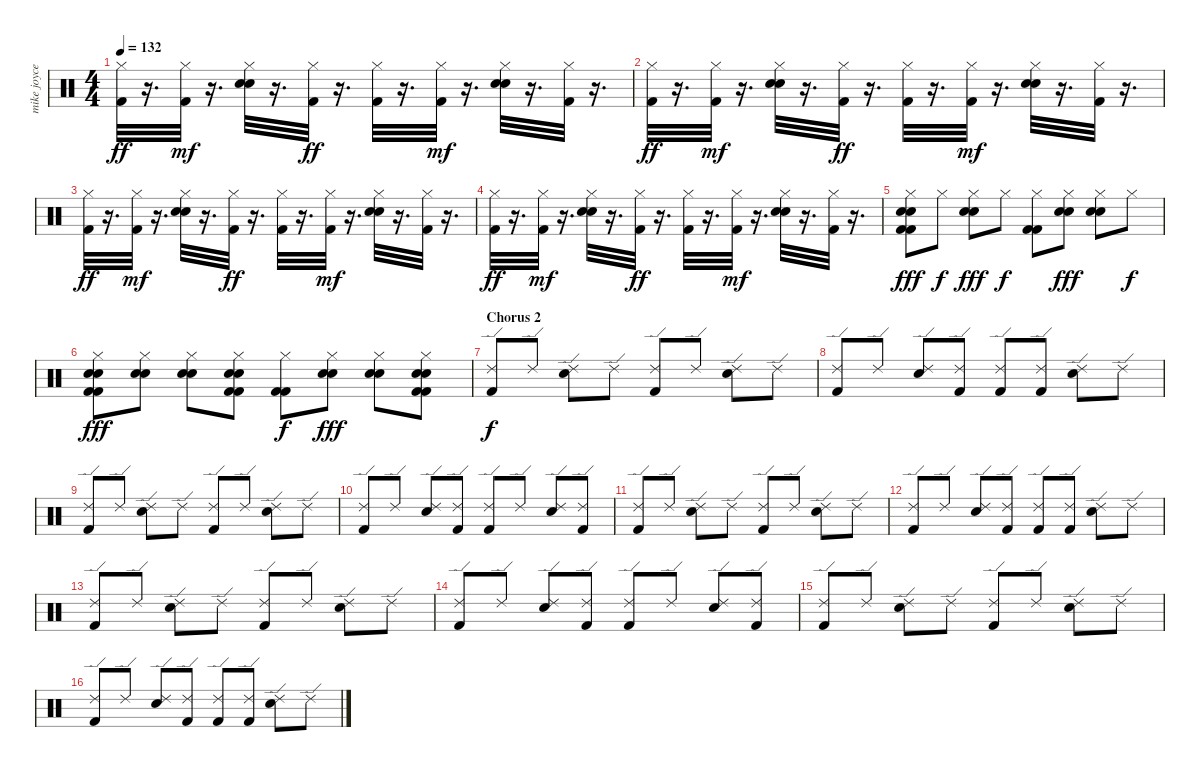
\track ("mike joyce" "mike joyce") {instrument percussion}
\staff {score}
\articulation defaults
\ts (4 4)
\tempo 132
\clef neutral
\ks c
("Hi-Hat (closed)" "Kick (hit) 2").32{dy ff} r.16{d} ("Kick (hit) 2" "Hi-Hat (closed)").32{dy mf} r.16{d} ("Snare (hit) 2" "Electric Snare (hit)" "Hi-Hat (closed)").32 r.16{d} ("Hi-Hat (closed)" "Kick (hit) 2").32{dy ff} r.16{d} ("Hi-Hat (closed)" "Kick (hit) 2").32 r.16{d} ("Kick (hit) 2" "Hi-Hat (closed)").32{dy mf} r.16{d} ("Snare (hit) 2" "Electric Snare (hit)" "Hi-Hat (closed)").32 r.16{d} ("Kick (hit) 2" "Hi-Hat (closed)").32 r.16{d} |
("Hi-Hat (closed)" "Kick (hit) 2").32{dy ff} r.16{d} ("Kick (hit) 2" "Hi-Hat (closed)").32{dy mf} r.16{d} ("Snare (hit) 2" "Electric Snare (hit)" "Hi-Hat (closed)").32 r.16{d} ("Hi-Hat (closed)" "Kick (hit) 2").32{dy ff} r.16{d} ("Hi-Hat (closed)" "Kick (hit) 2").32 r.16{d} ("Kick (hit) 2" "Hi-Hat (closed)").32{dy mf} r.16{d} ("Snare (hit) 2" "Electric Snare (hit)" "Hi-Hat (closed)").32 r.16{d} ("Kick (hit) 2" "Hi-Hat (closed)").32 r.16{d} |
("Hi-Hat (closed)" "Kick (hit) 2").32{dy ff} r.16{d} ("Kick (hit) 2" "Hi-Hat (closed)").32{dy mf} r.16{d} ("Snare (hit) 2" "Electric Snare (hit)" "Hi-Hat (closed)").32 r.16{d} ("Hi-Hat (closed)" "Kick (hit) 2").32{dy ff} r.16{d} ("Hi-Hat (closed)" "Kick (hit) 2").32 r.16{d} ("Kick (hit) 2" "Hi-Hat (closed)").32{dy mf} r.16{d} ("Snare (hit) 2" "Electric Snare (hit)" "Hi-Hat (closed)").32 r.16{d} ("Kick (hit) 2" "Hi-Hat (closed)").32 r.16{d} |
("Hi-Hat (closed)" "Kick (hit) 2").32{dy ff} r.16{d} ("Kick (hit) 2" "Hi-Hat (closed)").32{dy mf} r.16{d} ("Snare (hit) 2" "Electric Snare (hit)" "Hi-Hat (closed)").32 r.16{d} ("Hi-Hat (closed)" "Kick (hit) 2").32{dy ff} r.16{d} ("Hi-Hat (closed)" "Kick (hit) 2").32 r.16{d} ("Kick (hit) 2" "Hi-Hat (closed)").32{dy mf} r.16{d} ("Snare (hit) 2" "Electric Snare (hit)" "Hi-Hat (closed)").32 r.16{d} ("Kick (hit) 2" "Hi-Hat (closed)").32 r.16{d} |
("Hi-Hat (closed)" "Electric Snare (hit)" "Snare (hit) 2" "Kick (hit) 2" "Kick (hit) 2").8{dy fff} "Hi-Hat (closed)".8{dy f} ("Hi-Hat (closed)" "Electric Snare (hit)" "Snare (hit) 2").8{dy fff} "Hi-Hat (closed)".8{dy f} ("Hi-Hat (closed)" "Kick (hit) 2" "Kick (hit) 2").8 ("Hi-Hat (closed)" "Electric Snare (hit)" "Snare (hit) 2").8{dy fff} ("Hi-Hat (closed)" "Electric Snare (hit)" "Snare (hit) 2").8 "Hi-Hat (closed)".8{dy f} |
("Hi-Hat (closed)" "Electric Snare (hit)" "Snare (hit) 2" "Kick (hit) 2" "Kick (hit) 2").8{dy fff} ("Hi-Hat (closed)" "Electric Snare (hit)" "Snare (hit) 2").8 ("Hi-Hat (closed)" "Electric Snare (hit)" "Snare (hit) 2").8 ("Hi-Hat (closed)" "Electric Snare (hit)" "Snare (hit) 2" "Kick (hit) 2" "Kick (hit) 2").8 ("Hi-Hat (closed)" "Kick (hit) 2" "Kick (hit) 2").8{dy f} ("Hi-Hat (closed)" "Electric Snare (hit)" "Snare (hit) 2").8{dy fff} ("Hi-Hat (closed)" "Electric Snare (hit)" "Snare (hit) 2").8 ("Hi-Hat (closed)" "Electric Snare (hit)" "Snare (hit) 2" "Kick (hit) 2" "Kick (hit) 2").8 |
\section ("" "Chorus 2")
("Ride (edge) 2" "Kick (hit) 2").8{dy f} "Ride (edge) 2".8 ("Ride (edge) 2" "Snare (hit) 2").8 "Ride (edge) 2".8 ("Ride (edge) 2" "Kick (hit) 2").8 "Ride (edge) 2".8 ("Ride (edge) 2" "Snare (hit) 2").8 "Ride (edge) 2".8 |
("Ride (edge) 2" "Kick (hit) 2").8 "Ride (edge) 2".8 ("Ride (edge) 2" "Snare (hit) 2").8 ("Ride (edge) 2" "Kick (hit) 2").8 ("Ride (edge) 2" "Kick (hit) 2").8 ("Ride (edge) 2" "Kick (hit) 2").8 ("Ride (edge) 2" "Snare (hit) 2").8 "Ride (edge) 2".8 |
("Ride (edge) 2" "Kick (hit) 2").8 "Ride (edge) 2".8 ("Ride (edge) 2" "Snare (hit) 2").8 "Ride (edge) 2".8 ("Ride (edge) 2" "Kick (hit) 2").8 "Ride (edge) 2".8 ("Ride (edge) 2" "Snare (hit) 2").8 "Ride (edge) 2".8 |
("Ride (edge) 2" "Kick (hit) 2").8 "Ride (edge) 2".8 ("Ride (edge) 2" "Snare (hit) 2").8 ("Ride (edge) 2" "Kick (hit) 2").8 ("Ride (edge) 2" "Kick (hit) 2").8 "Ride (edge) 2".8 ("Ride (edge) 2" "Snare (hit) 2").8 ("Ride (edge) 2" "Kick (hit) 2").8 |
("Ride (edge) 2" "Kick (hit) 2").8 "Ride (edge) 2".8 ("Ride (edge) 2" "Snare (hit) 2").8 "Ride (edge) 2".8 ("Ride (edge) 2" "Kick (hit) 2").8 "Ride (edge) 2".8 ("Ride (edge) 2" "Snare (hit) 2").8 "Ride (edge) 2".8 |
("Ride (edge) 2" "Kick (hit) 2").8 "Ride (edge) 2".8 ("Ride (edge) 2" "Snare (hit) 2").8 ("Ride (edge) 2" "Kick (hit) 2").8 ("Ride (edge) 2" "Kick (hit) 2").8 ("Ride (edge) 2" "Kick (hit) 2").8 ("Ride (edge) 2" "Snare (hit) 2").8 "Ride (edge) 2".8 |
("Ride (edge) 2" "Kick (hit) 2").8 "Ride (edge) 2".8 ("Ride (edge) 2" "Snare (hit) 2").8 "Ride (edge) 2".8 ("Ride (edge) 2" "Kick (hit) 2").8 "Ride (edge) 2".8 ("Ride (edge) 2" "Snare (hit) 2").8 "Ride (edge) 2".8 |
("Ride (edge) 2" "Kick (hit) 2").8 "Ride (edge) 2".8 ("Ride (edge) 2" "Snare (hit) 2").8 ("Ride (edge) 2" "Kick (hit) 2").8 ("Ride (edge) 2" "Kick (hit) 2").8 "Ride (edge) 2".8 ("Ride (edge) 2" "Snare (hit) 2").8 ("Ride (edge) 2" "Kick (hit) 2").8 |
("Ride (edge) 2" "Kick (hit) 2").8 "Ride (edge) 2".8 ("Ride (edge) 2" "Snare (hit) 2").8 "Ride (edge) 2".8 ("Ride (edge) 2" "Kick (hit) 2").8 "Ride (edge) 2".8 ("Ride (edge) 2" "Snare (hit) 2").8 "Ride (edge) 2".8 |
("Ride (edge) 2" "Kick (hit) 2").8 "Ride (edge) 2".8 ("Ride (edge) 2" "Snare (hit) 2").8 ("Ride (edge) 2" "Kick (hit) 2").8 ("Ride (edge) 2" "Kick (hit) 2").8 ("Ride (edge) 2" "Kick (hit) 2").8 ("Ride (edge) 2" "Snare (hit) 2").8 "Ride (edge) 2".8
